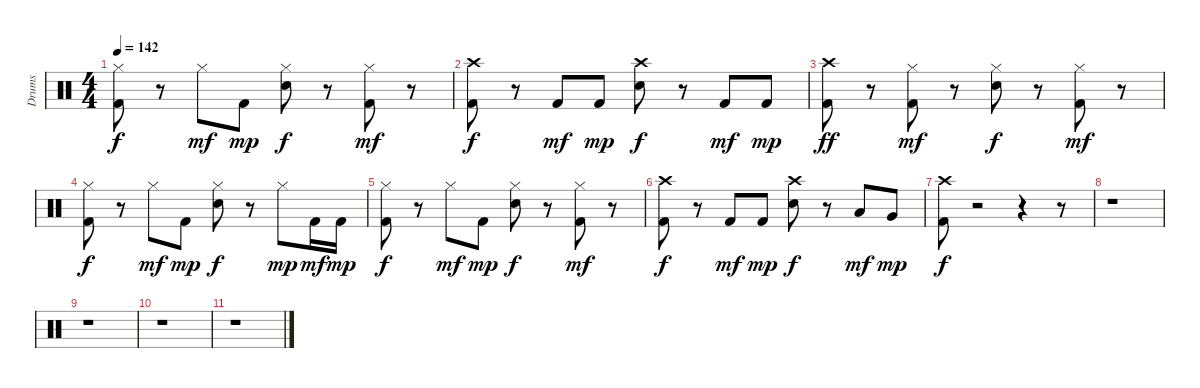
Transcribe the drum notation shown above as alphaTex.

\track ("Drums" "Drums") {instrument percussion}
\staff {score}
\articulation defaults
\ts (4 4)
\tempo 142
\clef neutral
\ks c
("Hi-Hat (closed)" "Kick (hit) 2").8{dy f} r.8 "Hi-Hat (closed)".8{dy mf} "Kick (hit) 2".8{dy mp} ("Hi-Hat (closed)" "Snare (hit) 2").8{dy f} r.8 ("Hi-Hat (closed)" "Kick (hit) 2").8{dy mf} r.8 |
("Crash high (hit)" "Kick (hit) 2").8{dy f} r.8 "Kick (hit) 2".8{dy mf} "Kick (hit) 2".8{dy mp} ("Crash high (hit)" "Snare (hit) 2").8{dy f} r.8 "Kick (hit) 2".8{dy mf} "Kick (hit) 2".8{dy mp} |
("Crash high (hit)" "Kick (hit) 2").8{dy ff} r.8 ("Hi-Hat (closed)" "Kick (hit) 2").8{dy mf} r.8 ("Hi-Hat (closed)" "Snare (hit) 2").8{dy f} r.8 ("Hi-Hat (closed)" "Kick (hit) 2").8{dy mf} r.8 |
("Hi-Hat (closed)" "Kick (hit) 2").8{dy f} r.8 "Hi-Hat (closed)".8{dy mf} "Kick (hit) 2".8{dy mp} ("Hi-Hat (closed)" "Snare (hit) 2").8{dy f} r.8 "Hi-Hat (closed)".8{dy mp} "Kick (hit) 2".16{dy mf} "Kick (hit) 2".16{dy mp} |
("Hi-Hat (closed)" "Kick (hit) 2").8{dy f} r.8 "Hi-Hat (closed)".8{dy mf} "Kick (hit) 2".8{dy mp} ("Hi-Hat (closed)" "Snare (hit) 2").8{dy f} r.8 ("Hi-Hat (closed)" "Kick (hit) 2").8{dy mf} r.8 |
("Crash high (hit)" "Kick (hit) 2").8{dy f} r.8 "Kick (hit) 2".8{dy mf} "Kick (hit) 2".8{dy mp} ("Crash high (hit)" "Snare (hit) 2").8{dy f} r.8 "Low Tom (hit)".8{dy mf} "Very Low Tom (hit)".8{dy mp} |
("Crash high (hit)" "Kick (hit) 2").8{dy f} r.2 r.4 r.8 |
r.1 |
r.1 |
r.1 |
r.1
